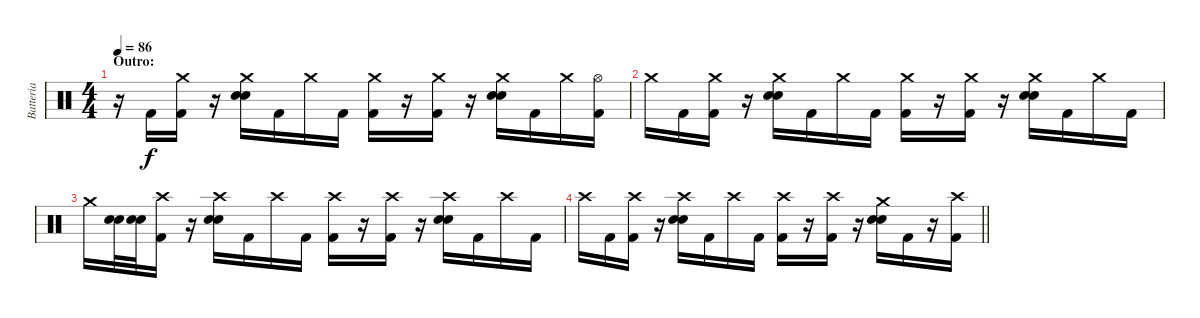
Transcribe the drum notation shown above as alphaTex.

\track ("Batteria" "Batteria") {instrument percussion}
\staff {score}
\articulation defaults
\ts (4 4)
\section ("" "Outro:")
\tempo 86
\clef neutral
\ks c
r.16{dy f} "Kick (hit) 2".16 ("Kick (hit) 2" "Crash medium (hit)").16 r.16 ("Snare (hit) 2" "Snare (hit) 2" "Crash medium (hit)").16 "Kick (hit) 2".16 "Crash medium (hit)".16 "Kick (hit) 2".16 ("Kick (hit) 2" "Crash medium (hit)").16 r.16 ("Kick (hit) 2" "Crash medium (hit)").16 r.16 ("Snare (hit) 2" "Snare (hit) 2" "Crash medium (hit)").16 "Kick (hit) 2".16 "Crash medium (hit)".16 ("Kick (hit) 2" "Hi-Hat (open)").16 |
"Crash medium (hit)".16 "Kick (hit) 2".16 ("Kick (hit) 2" "Crash medium (hit)").16 r.16 ("Snare (hit) 2" "Snare (hit) 2" "Crash medium (hit)").16 "Kick (hit) 2".16 "Crash medium (hit)".16 "Kick (hit) 2".16 ("Kick (hit) 2" "Crash medium (hit)").16 r.16 ("Kick (hit) 2" "Crash medium (hit)").16 r.16 ("Snare (hit) 2" "Snare (hit) 2" "Crash medium (hit)").16 "Kick (hit) 2".16 "Crash medium (hit)".16 "Kick (hit) 2".16 |
"Crash medium (hit)".16 ("Snare (hit) 2" "Snare (hit) 2").32 ("Snare (hit) 2" "Snare (hit) 2").32 ("Kick (hit) 2" "Crash high (hit)").16 r.16 ("Snare (hit) 2" "Snare (hit) 2" "Crash high (hit)").16 "Kick (hit) 2".16 "Crash high (hit)".16 "Kick (hit) 2".16 ("Kick (hit) 2" "Crash high (hit)").16 r.16 ("Kick (hit) 2" "Crash high (hit)").16 r.16 ("Snare (hit) 2" "Snare (hit) 2" "Crash high (hit)").16 "Kick (hit) 2".16 "Crash high (hit)".16 "Kick (hit) 2".16 |
\barLineRight lightlight "Crash high (hit)".16 "Kick (hit) 2".16
("Kick (hit) 2" "Crash high (hit)").16 r.16 ("Snare (hit) 2" "Snare (hit) 2" "Crash high (hit)").16 "Kick (hit) 2".16 "Crash high (hit)".16 "Kick (hit) 2".16 ("Kick (hit) 2" "Crash high (hit)").16 r.16 ("Kick (hit) 2" "Crash high (hit)").16 r.16 ("Snare (hit) 2" "Snare (hit) 2" "Crash medium (hit)").16 "Kick (hit) 2".16 r.16 ("Kick (hit) 2" "Crash high (hit)").16
